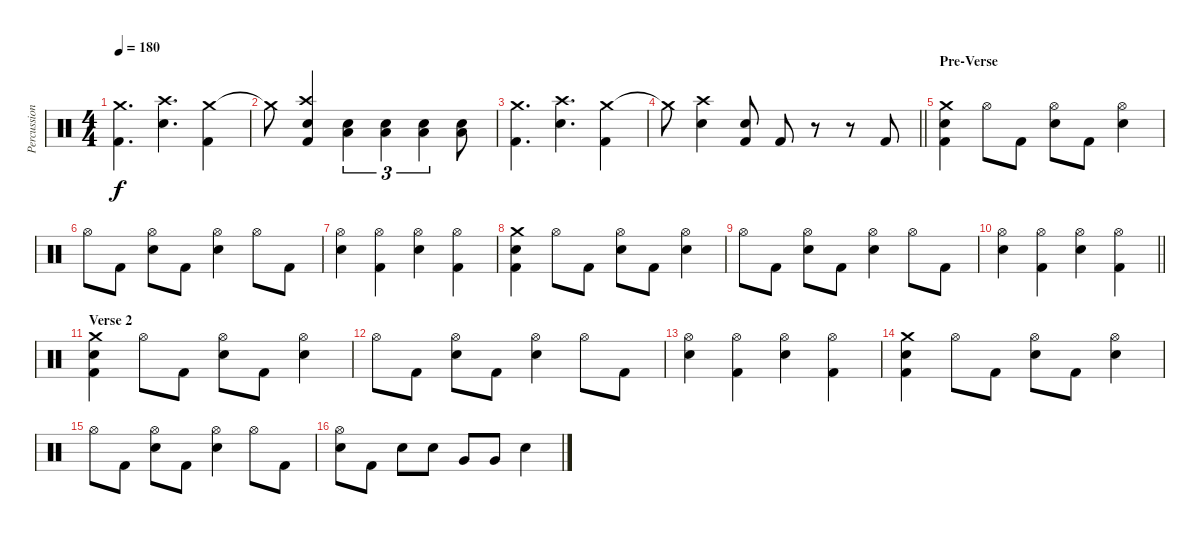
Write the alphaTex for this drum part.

\track ("Percussion" "Percussion") {instrument percussion}
\staff {score}
\articulation defaults
\ts (4 4)
\tempo 180
\clef neutral
\ks c
("Crash medium (hit)" "Kick (hit) 2").4{d dy f} ("Crash high (hit)" "Snare (hit) 2").4{d} ("Crash medium (hit)" "Kick (hit) 2").4 |
"Crash medium (hit)"{t}.8 ("Crash high (hit)" "Snare (hit) 2" "Kick (hit) 2").4 ("Snare (hit) 2" "Low Floor Tom (hit)").4{tu (3 2)} ("Snare (hit) 2" "Low Floor Tom (hit)").4{tu (3 2)} ("Snare (hit) 2" "Low Floor Tom (hit)").4{tu (3 2)} ("Snare (hit) 2" "Low Floor Tom (hit)").8 |
("Crash medium (hit)" "Kick (hit) 2").4{d} ("Crash high (hit)" "Snare (hit) 2").4{d} ("Crash medium (hit)" "Kick (hit) 2").4 |
\barLineRight lightlight "Crash medium (hit)"{t}.8
("Crash high (hit)" "Snare (hit) 2").4 ("Snare (hit) 2" "Kick (hit) 2").8 "Kick (hit) 2".8 r.8 r.8 "Kick (hit) 2".8 |
\section ("" "Pre-Verse")
("Crash medium (hit)" "Snare (hit) 2" "Kick (hit) 2").4 "Hi-Hat (open)".8 "Kick (hit) 2".8 ("Hi-Hat (open)" "Snare (hit) 2").8 "Kick (hit) 2".8 ("Hi-Hat (open)" "Snare (hit) 2").4 |
"Hi-Hat (open)".8 "Kick (hit) 2".8 ("Hi-Hat (open)" "Snare (hit) 2").8 "Kick (hit) 2".8 ("Hi-Hat (open)" "Snare (hit) 2").4 "Hi-Hat (open)".8 "Kick (hit) 2".8 |
("Hi-Hat (open)" "Snare (hit) 2").4 ("Hi-Hat (open)" "Kick (hit) 2").4 ("Hi-Hat (open)" "Snare (hit) 2").4 ("Hi-Hat (open)" "Kick (hit) 2").4 |
("Crash medium (hit)" "Snare (hit) 2" "Kick (hit) 2").4 "Hi-Hat (open)".8 "Kick (hit) 2".8 ("Hi-Hat (open)" "Snare (hit) 2").8 "Kick (hit) 2".8 ("Hi-Hat (open)" "Snare (hit) 2").4 |
"Hi-Hat (open)".8 "Kick (hit) 2".8 ("Hi-Hat (open)" "Snare (hit) 2").8 "Kick (hit) 2".8 ("Hi-Hat (open)" "Snare (hit) 2").4 "Hi-Hat (open)".8 "Kick (hit) 2".8 |
\barLineRight lightlight
("Hi-Hat (open)" "Snare (hit) 2").4 ("Hi-Hat (open)" "Kick (hit) 2").4 ("Hi-Hat (open)" "Snare (hit) 2").4 ("Hi-Hat (open)" "Kick (hit) 2").4 |
\section ("" "Verse 2")
("Crash medium (hit)" "Snare (hit) 2" "Kick (hit) 2").4 "Hi-Hat (open)".8 "Kick (hit) 2".8 ("Hi-Hat (open)" "Snare (hit) 2").8 "Kick (hit) 2".8 ("Hi-Hat (open)" "Snare (hit) 2").4 |
"Hi-Hat (open)".8 "Kick (hit) 2".8 ("Hi-Hat (open)" "Snare (hit) 2").8 "Kick (hit) 2".8 ("Hi-Hat (open)" "Snare (hit) 2").4 "Hi-Hat (open)".8 "Kick (hit) 2".8 |
("Hi-Hat (open)" "Snare (hit) 2").4 ("Hi-Hat (open)" "Kick (hit) 2").4 ("Hi-Hat (open)" "Snare (hit) 2").4 ("Hi-Hat (open)" "Kick (hit) 2").4 |
("Crash medium (hit)" "Snare (hit) 2" "Kick (hit) 2").4 "Hi-Hat (open)".8 "Kick (hit) 2".8 ("Hi-Hat (open)" "Snare (hit) 2").8 "Kick (hit) 2".8 ("Hi-Hat (open)" "Snare (hit) 2").4 |
"Hi-Hat (open)".8 "Kick (hit) 2".8 ("Hi-Hat (open)" "Snare (hit) 2").8 "Kick (hit) 2".8 ("Hi-Hat (open)" "Snare (hit) 2").4 "Hi-Hat (open)".8 "Kick (hit) 2".8 |
("Hi-Hat (open)" "Snare (hit) 2").8 "Kick (hit) 2".8 "Snare (hit) 2".8 "Snare (hit) 2".8 "Very Low Tom (hit)".8 "Very Low Tom (hit)".8 "Snare (hit) 2".4
